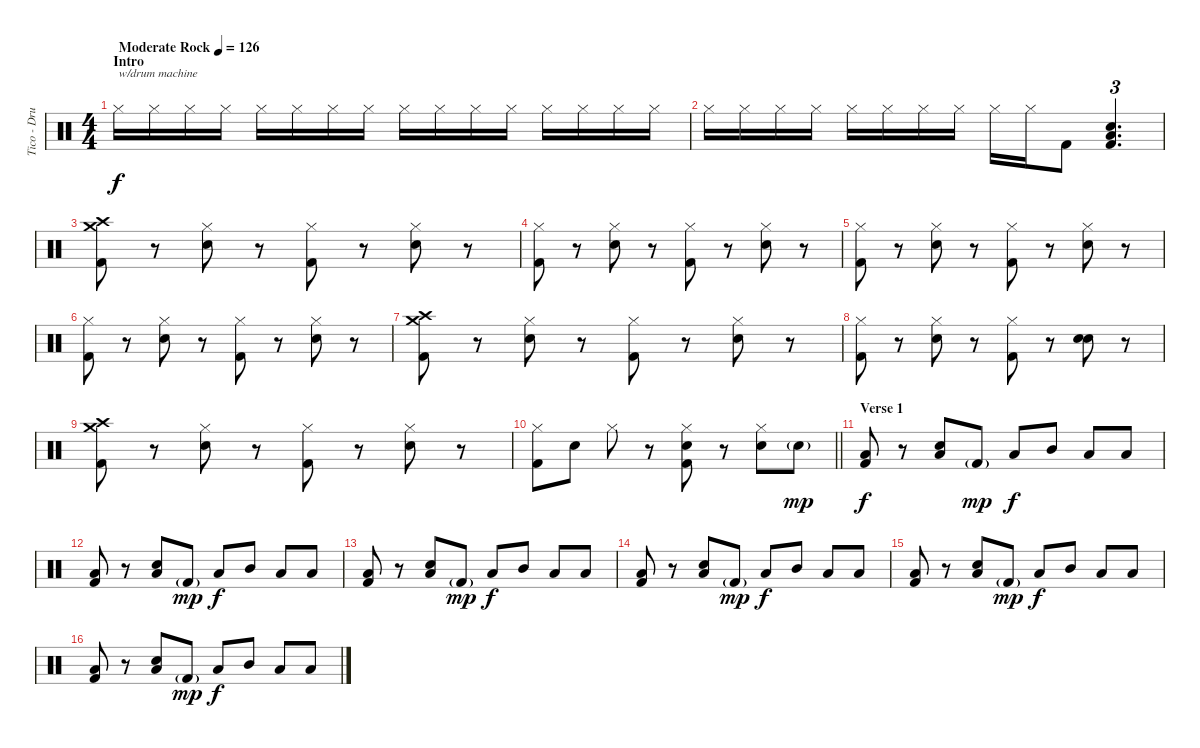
\track ("Tico - Drums" "Tico - Dru") {instrument percussion}
\staff {score}
\articulation defaults
\ts (4 4)
\section ("" "Intro")
\tempo (126 "Moderate Rock")
\clef neutral
\ks c "Hi-Hat (closed)".16{txt "w/drum machine" dy f volume 1} "Hi-Hat (closed)".16 "Hi-Hat (closed)".16 "Hi-Hat (closed)".16 "Hi-Hat (closed)".16 "Hi-Hat (closed)".16 "Hi-Hat (closed)".16 "Hi-Hat (closed)".16 "Hi-Hat (closed)".16 "Hi-Hat (closed)".16 "Hi-Hat (closed)".16 "Hi-Hat (closed)".16 "Hi-Hat (closed)".16 "Hi-Hat (closed)".16 "Hi-Hat (closed)".16 "Hi-Hat (closed)".16
|
"Hi-Hat (closed)".16 "Hi-Hat (closed)".16 "Hi-Hat (closed)".16 "Hi-Hat (closed)".16 "Hi-Hat (closed)".16 "Hi-Hat (closed)".16 "Hi-Hat (closed)".16 "Hi-Hat (closed)".16 "Hi-Hat (closed)".16 "Hi-Hat (closed)".16 "Kick (hit) 2".8{volume 11} ("Snare (hit) 2" "Low Floor Tom (hit)" "Kick (hit) 2").4{d tu (3 2)} |
("Crash medium (hit)" "Kick (hit) 2" "Crash high (hit)").8 r.8 ("Hi-Hat (closed)" "Snare (hit) 2").8 r.8 ("Hi-Hat (closed)" "Kick (hit) 2").8 r.8 ("Hi-Hat (closed)" "Snare (hit) 2").8 r.8 |
("Hi-Hat (closed)" "Kick (hit) 2").8 r.8 ("Hi-Hat (closed)" "Snare (hit) 2").8 r.8 ("Hi-Hat (closed)" "Kick (hit) 2").8 r.8 ("Hi-Hat (closed)" "Snare (hit) 2").8 r.8 |
("Hi-Hat (closed)" "Kick (hit) 2").8 r.8 ("Hi-Hat (closed)" "Snare (hit) 2").8 r.8 ("Hi-Hat (closed)" "Kick (hit) 2").8 r.8 ("Hi-Hat (closed)" "Snare (hit) 2").8 r.8 |
("Hi-Hat (closed)" "Kick (hit) 2").8 r.8 ("Hi-Hat (closed)" "Snare (hit) 2").8 r.8 ("Hi-Hat (closed)" "Kick (hit) 2").8 r.8 ("Hi-Hat (closed)" "Snare (hit) 2").8 r.8 |
("Crash medium (hit)" "Kick (hit) 2" "Crash high (hit)").8 r.8 ("Hi-Hat (closed)" "Snare (hit) 2").8 r.8 ("Hi-Hat (closed)" "Kick (hit) 2").8 r.8 ("Hi-Hat (closed)" "Snare (hit) 2").8 r.8 |
("Hi-Hat (closed)" "Kick (hit) 2").8 r.8 ("Hi-Hat (closed)" "Snare (hit) 2").8 r.8 ("Hi-Hat (closed)" "Kick (hit) 2").8 r.8 ("Snare (hit) 2" "Snare (hit) 2").8 r.8 |
("Crash medium (hit)" "Kick (hit) 2" "Crash high (hit)").8 r.8 ("Hi-Hat (closed)" "Snare (hit) 2").8 r.8 ("Hi-Hat (closed)" "Kick (hit) 2").8 r.8 ("Hi-Hat (closed)" "Snare (hit) 2").8 r.8 |
\barLineRight lightlight
("Hi-Hat (closed)" "Kick (hit) 2").8 "Snare (hit) 2".8 "Hi-Hat (closed)".8 r.8 ("Hi-Hat (closed)" "Snare (hit) 2" "Kick (hit) 2").8 r.8 ("Hi-Hat (closed)" "Snare (hit) 2").8 "Snare (hit) 2"{g}.8{dy mp} |
\section ("" "Verse 1")
("Low Floor Tom (hit)" "Kick (hit) 2").8{dy f} r.8 ("Snare (hit) 2" "Low Floor Tom (hit)").8 "Kick (hit) 2"{g}.8{dy mp} "Low Floor Tom (hit)".8{dy f} "Mid Tom (hit)".8 "Low Floor Tom (hit)".8 "Low Tom (hit)".8 |
("Low Floor Tom (hit)" "Kick (hit) 2").8 r.8 ("Snare (hit) 2" "Low Floor Tom (hit)").8 "Kick (hit) 2"{g}.8{dy mp} "Low Floor Tom (hit)".8{dy f} "Mid Tom (hit)".8 "Low Floor Tom (hit)".8 "Low Tom (hit)".8 |
("Low Floor Tom (hit)" "Kick (hit) 2").8 r.8 ("Snare (hit) 2" "Low Floor Tom (hit)").8 "Kick (hit) 2"{g}.8{dy mp} "Low Floor Tom (hit)".8{dy f} "Mid Tom (hit)".8 "Low Floor Tom (hit)".8 "Low Tom (hit)".8 |
("Low Floor Tom (hit)" "Kick (hit) 2").8 r.8 ("Snare (hit) 2" "Low Floor Tom (hit)").8 "Kick (hit) 2"{g}.8{dy mp} "Low Floor Tom (hit)".8{dy f} "Mid Tom (hit)".8 "Low Floor Tom (hit)".8 "Low Tom (hit)".8 |
("Low Floor Tom (hit)" "Kick (hit) 2").8 r.8 ("Snare (hit) 2" "Low Floor Tom (hit)").8 "Kick (hit) 2"{g}.8{dy mp} "Low Floor Tom (hit)".8{dy f} "Mid Tom (hit)".8 "Low Floor Tom (hit)".8 "Low Tom (hit)".8 |
("Low Floor Tom (hit)" "Kick (hit) 2").8 r.8 ("Snare (hit) 2" "Low Floor Tom (hit)").8 "Kick (hit) 2"{g}.8{dy mp} "Low Floor Tom (hit)".8{dy f} "Mid Tom (hit)".8 "Low Floor Tom (hit)".8 "Low Tom (hit)".8
